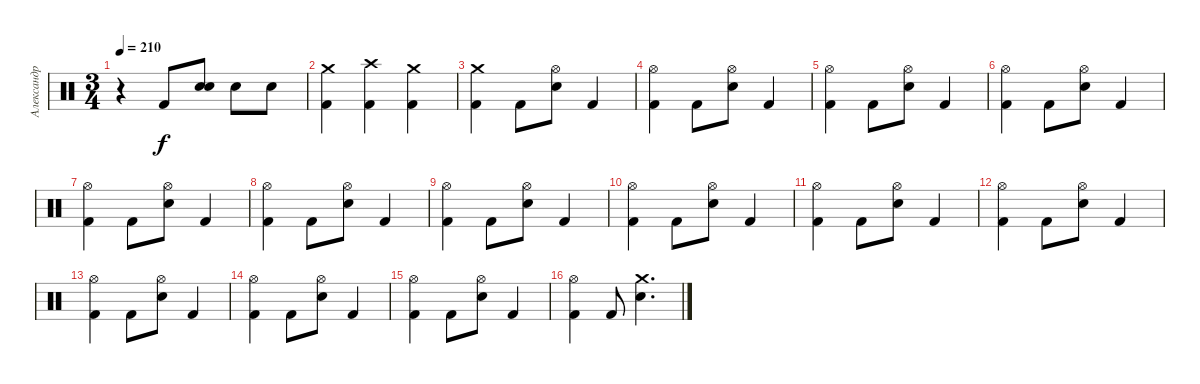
\track ("Александр Манякин" "Александр ") {instrument percussion}
\staff {score}
\articulation defaults
\ts (3 4)
\tempo 210
\clef neutral
\ks c
r.4{dy f} "Kick (hit) 2".8 ("Snare (hit) 2" "Snare (hit) 2").8{bd 120} "Snare (hit) 2".8 "Snare (hit) 2".8 |
("Crash medium (hit)" "Kick (hit) 2").4 ("Crash high (hit)" "Kick (hit) 2").4 ("Crash medium (hit)" "Kick (hit) 2").4 |
("Crash medium (hit)" "Kick (hit) 2").4 "Kick (hit) 2".8 ("Hi-Hat (open)" "Snare (hit) 2").8 "Kick (hit) 2".4 |
("Hi-Hat (open)" "Kick (hit) 2").4 "Kick (hit) 2".8 ("Hi-Hat (open)" "Snare (hit) 2").8 "Kick (hit) 2".4 |
("Hi-Hat (open)" "Kick (hit) 2").4 "Kick (hit) 2".8 ("Hi-Hat (open)" "Snare (hit) 2").8 "Kick (hit) 2".4 |
("Hi-Hat (open)" "Kick (hit) 2").4 "Kick (hit) 2".8 ("Hi-Hat (open)" "Snare (hit) 2").8 "Kick (hit) 2".4 |
("Hi-Hat (open)" "Kick (hit) 2").4 "Kick (hit) 2".8 ("Hi-Hat (open)" "Snare (hit) 2").8 "Kick (hit) 2".4 |
("Hi-Hat (open)" "Kick (hit) 2").4 "Kick (hit) 2".8 ("Hi-Hat (open)" "Snare (hit) 2").8 "Kick (hit) 2".4 |
("Hi-Hat (open)" "Kick (hit) 2").4 "Kick (hit) 2".8 ("Hi-Hat (open)" "Snare (hit) 2").8 "Kick (hit) 2".4 |
("Hi-Hat (open)" "Kick (hit) 2").4 "Kick (hit) 2".8 ("Hi-Hat (open)" "Snare (hit) 2").8 "Kick (hit) 2".4 |
("Hi-Hat (open)" "Kick (hit) 2").4 "Kick (hit) 2".8 ("Hi-Hat (open)" "Snare (hit) 2").8 "Kick (hit) 2".4 |
("Hi-Hat (open)" "Kick (hit) 2").4 "Kick (hit) 2".8 ("Hi-Hat (open)" "Snare (hit) 2").8 "Kick (hit) 2".4 |
("Hi-Hat (open)" "Kick (hit) 2").4 "Kick (hit) 2".8 ("Hi-Hat (open)" "Snare (hit) 2").8 "Kick (hit) 2".4 |
("Hi-Hat (open)" "Kick (hit) 2").4 "Kick (hit) 2".8 ("Hi-Hat (open)" "Snare (hit) 2").8 "Kick (hit) 2".4 |
("Hi-Hat (open)" "Kick (hit) 2").4 "Kick (hit) 2".8 ("Hi-Hat (open)" "Snare (hit) 2").8 "Kick (hit) 2".4 |
("Hi-Hat (open)" "Kick (hit) 2").4 "Kick (hit) 2".8 ("Crash medium (hit)" "Snare (hit) 2").4{d}
